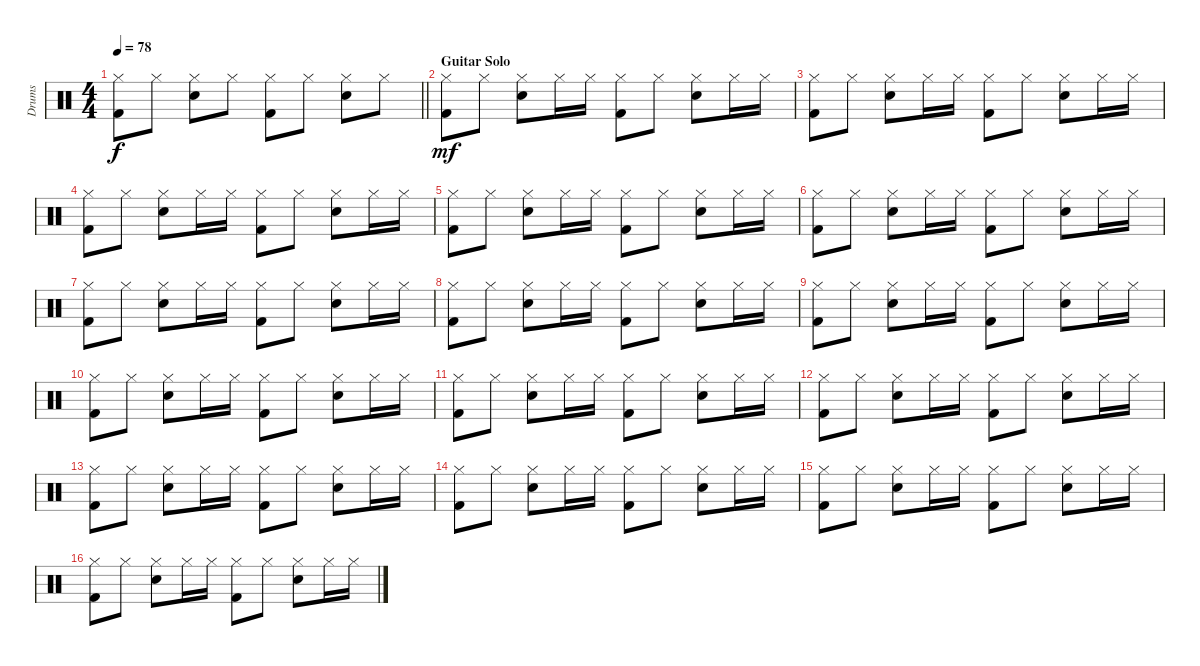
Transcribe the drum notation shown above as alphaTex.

\track ("Drums" "Drums") {instrument percussion}
\staff {score}
\articulation defaults
\ts (4 4)
\tempo 78
\clef neutral
\barLineRight lightlight
\ks c
("Hi-Hat (closed)" "Kick (hit) 2").8{dy f} "Hi-Hat (closed)".8 ("Hi-Hat (closed)" "Snare (hit) 2").8 "Hi-Hat (closed)".8 ("Hi-Hat (closed)" "Kick (hit) 2").8 "Hi-Hat (closed)".8 ("Hi-Hat (closed)" "Snare (hit) 2").8 "Hi-Hat (closed)".8 |
\section ("" "Guitar Solo")
("Hi-Hat (closed)" "Kick (hit) 2").8{dy mf} "Hi-Hat (closed)".8 ("Hi-Hat (closed)" "Snare (hit) 2").8 "Hi-Hat (closed)".16 "Hi-Hat (closed)".16 ("Hi-Hat (closed)" "Kick (hit) 2").8 "Hi-Hat (closed)".8 ("Hi-Hat (closed)" "Snare (hit) 2").8 "Hi-Hat (closed)".16 "Hi-Hat (closed)".16 |
("Hi-Hat (closed)" "Kick (hit) 2").8 "Hi-Hat (closed)".8 ("Hi-Hat (closed)" "Snare (hit) 2").8 "Hi-Hat (closed)".16 "Hi-Hat (closed)".16 ("Hi-Hat (closed)" "Kick (hit) 2").8 "Hi-Hat (closed)".8 ("Hi-Hat (closed)" "Snare (hit) 2").8 "Hi-Hat (closed)".16 "Hi-Hat (closed)".16 |
("Hi-Hat (closed)" "Kick (hit) 2").8 "Hi-Hat (closed)".8 ("Hi-Hat (closed)" "Snare (hit) 2").8 "Hi-Hat (closed)".16 "Hi-Hat (closed)".16 ("Hi-Hat (closed)" "Kick (hit) 2").8 "Hi-Hat (closed)".8 ("Hi-Hat (closed)" "Snare (hit) 2").8 "Hi-Hat (closed)".16 "Hi-Hat (closed)".16 |
("Hi-Hat (closed)" "Kick (hit) 2").8 "Hi-Hat (closed)".8 ("Hi-Hat (closed)" "Snare (hit) 2").8 "Hi-Hat (closed)".16 "Hi-Hat (closed)".16 ("Hi-Hat (closed)" "Kick (hit) 2").8 "Hi-Hat (closed)".8 ("Hi-Hat (closed)" "Snare (hit) 2").8 "Hi-Hat (closed)".16 "Hi-Hat (closed)".16 |
("Hi-Hat (closed)" "Kick (hit) 2").8 "Hi-Hat (closed)".8 ("Hi-Hat (closed)" "Snare (hit) 2").8 "Hi-Hat (closed)".16 "Hi-Hat (closed)".16 ("Hi-Hat (closed)" "Kick (hit) 2").8 "Hi-Hat (closed)".8 ("Hi-Hat (closed)" "Snare (hit) 2").8 "Hi-Hat (closed)".16 "Hi-Hat (closed)".16 |
("Hi-Hat (closed)" "Kick (hit) 2").8 "Hi-Hat (closed)".8 ("Hi-Hat (closed)" "Snare (hit) 2").8 "Hi-Hat (closed)".16 "Hi-Hat (closed)".16 ("Hi-Hat (closed)" "Kick (hit) 2").8 "Hi-Hat (closed)".8 ("Hi-Hat (closed)" "Snare (hit) 2").8 "Hi-Hat (closed)".16 "Hi-Hat (closed)".16 |
("Hi-Hat (closed)" "Kick (hit) 2").8 "Hi-Hat (closed)".8 ("Hi-Hat (closed)" "Snare (hit) 2").8 "Hi-Hat (closed)".16 "Hi-Hat (closed)".16 ("Hi-Hat (closed)" "Kick (hit) 2").8 "Hi-Hat (closed)".8 ("Hi-Hat (closed)" "Snare (hit) 2").8 "Hi-Hat (closed)".16 "Hi-Hat (closed)".16 |
("Hi-Hat (closed)" "Kick (hit) 2").8 "Hi-Hat (closed)".8 ("Hi-Hat (closed)" "Snare (hit) 2").8 "Hi-Hat (closed)".16 "Hi-Hat (closed)".16 ("Hi-Hat (closed)" "Kick (hit) 2").8 "Hi-Hat (closed)".8 ("Hi-Hat (closed)" "Snare (hit) 2").8 "Hi-Hat (closed)".16 "Hi-Hat (closed)".16 |
("Hi-Hat (closed)" "Kick (hit) 2").8 "Hi-Hat (closed)".8 ("Hi-Hat (closed)" "Snare (hit) 2").8 "Hi-Hat (closed)".16 "Hi-Hat (closed)".16 ("Hi-Hat (closed)" "Kick (hit) 2").8 "Hi-Hat (closed)".8 ("Hi-Hat (closed)" "Snare (hit) 2").8 "Hi-Hat (closed)".16 "Hi-Hat (closed)".16 |
("Hi-Hat (closed)" "Kick (hit) 2").8 "Hi-Hat (closed)".8 ("Hi-Hat (closed)" "Snare (hit) 2").8 "Hi-Hat (closed)".16 "Hi-Hat (closed)".16 ("Hi-Hat (closed)" "Kick (hit) 2").8 "Hi-Hat (closed)".8 ("Hi-Hat (closed)" "Snare (hit) 2").8 "Hi-Hat (closed)".16 "Hi-Hat (closed)".16 |
("Hi-Hat (closed)" "Kick (hit) 2").8 "Hi-Hat (closed)".8 ("Hi-Hat (closed)" "Snare (hit) 2").8 "Hi-Hat (closed)".16 "Hi-Hat (closed)".16 ("Hi-Hat (closed)" "Kick (hit) 2").8 "Hi-Hat (closed)".8 ("Hi-Hat (closed)" "Snare (hit) 2").8 "Hi-Hat (closed)".16 "Hi-Hat (closed)".16 |
("Hi-Hat (closed)" "Kick (hit) 2").8 "Hi-Hat (closed)".8 ("Hi-Hat (closed)" "Snare (hit) 2").8 "Hi-Hat (closed)".16 "Hi-Hat (closed)".16 ("Hi-Hat (closed)" "Kick (hit) 2").8 "Hi-Hat (closed)".8 ("Hi-Hat (closed)" "Snare (hit) 2").8 "Hi-Hat (closed)".16 "Hi-Hat (closed)".16 |
("Hi-Hat (closed)" "Kick (hit) 2").8 "Hi-Hat (closed)".8 ("Hi-Hat (closed)" "Snare (hit) 2").8 "Hi-Hat (closed)".16 "Hi-Hat (closed)".16 ("Hi-Hat (closed)" "Kick (hit) 2").8 "Hi-Hat (closed)".8 ("Hi-Hat (closed)" "Snare (hit) 2").8 "Hi-Hat (closed)".16 "Hi-Hat (closed)".16 |
("Hi-Hat (closed)" "Kick (hit) 2").8 "Hi-Hat (closed)".8 ("Hi-Hat (closed)" "Snare (hit) 2").8 "Hi-Hat (closed)".16 "Hi-Hat (closed)".16 ("Hi-Hat (closed)" "Kick (hit) 2").8 "Hi-Hat (closed)".8 ("Hi-Hat (closed)" "Snare (hit) 2").8 "Hi-Hat (closed)".16 "Hi-Hat (closed)".16 |
("Hi-Hat (closed)" "Kick (hit) 2").8 "Hi-Hat (closed)".8 ("Hi-Hat (closed)" "Snare (hit) 2").8 "Hi-Hat (closed)".16 "Hi-Hat (closed)".16 ("Hi-Hat (closed)" "Kick (hit) 2").8 "Hi-Hat (closed)".8 ("Hi-Hat (closed)" "Snare (hit) 2").8 "Hi-Hat (closed)".16 "Hi-Hat (closed)".16
